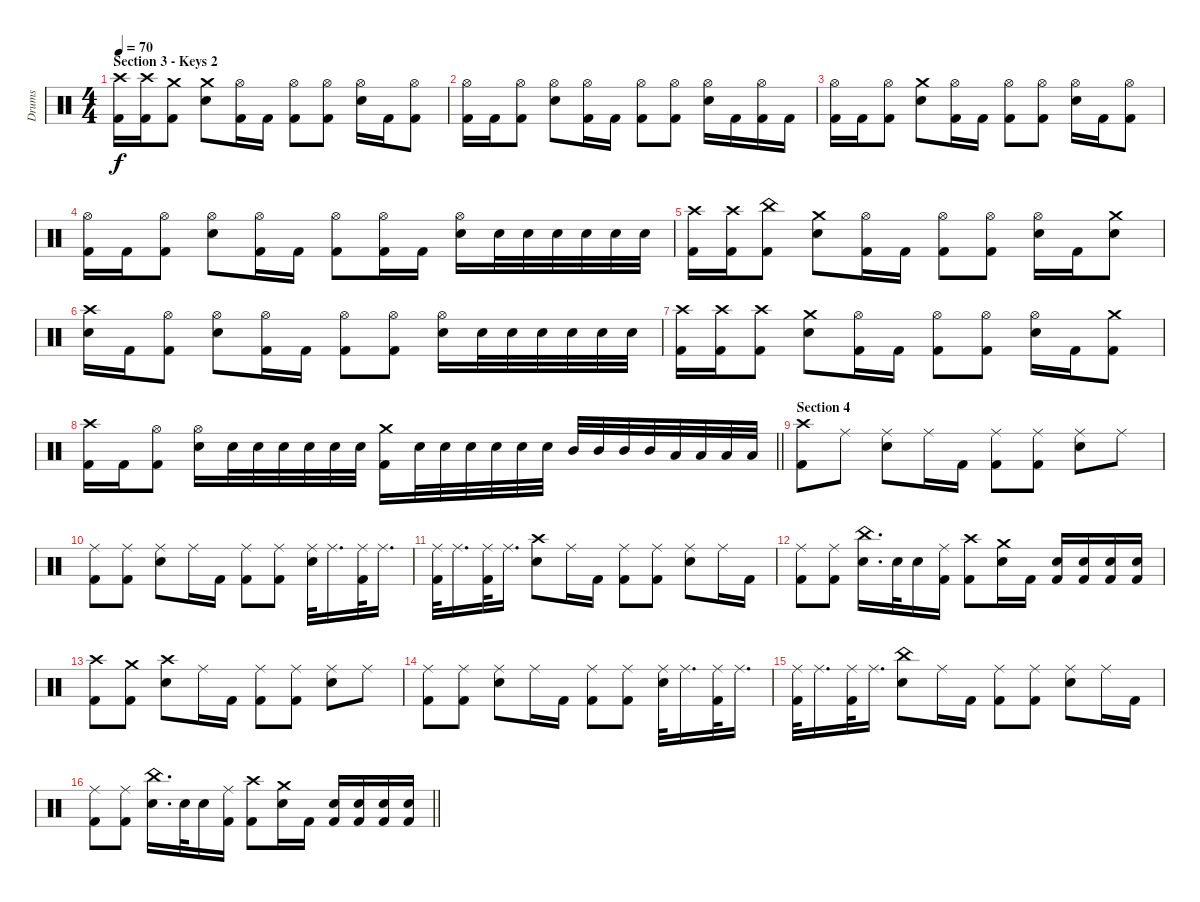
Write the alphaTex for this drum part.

\track ("Drums" "Drums") {instrument percussion}
\staff {score}
\articulation defaults
\ts (4 4)
\section ("" "Section 3 - Keys 2")
\tempo 70
\clef neutral
\ks c
("Crash high (hit)" "Kick (hit) 2").16{dy f} ("Crash high (hit)" "Kick (hit) 2").16 ("Crash medium (hit)" "Kick (hit) 2").8 ("Crash medium (hit)" "Electric Snare (hit)").8 ("Hi-Hat (open)" "Kick (hit) 2").16 "Kick (hit) 2".16 ("Hi-Hat (open)" "Kick (hit) 2").8 ("Hi-Hat (open)" "Kick (hit) 2").8 ("Hi-Hat (open)" "Electric Snare (hit)").16 "Kick (hit) 2".16 ("Hi-Hat (open)" "Kick (hit) 2").8 |
("Hi-Hat (open)" "Kick (hit) 2").16 "Kick (hit) 2".16 ("Hi-Hat (open)" "Kick (hit) 2").8 ("Hi-Hat (open)" "Electric Snare (hit)").8 ("Hi-Hat (open)" "Kick (hit) 2").16 "Kick (hit) 2".16 ("Hi-Hat (open)" "Kick (hit) 2").8 ("Hi-Hat (open)" "Kick (hit) 2").8 ("Hi-Hat (open)" "Electric Snare (hit)").16 "Kick (hit) 2".16 ("Hi-Hat (open)" "Kick (hit) 2").16 "Kick (hit) 2".16 |
("Hi-Hat (open)" "Kick (hit) 2").16 "Kick (hit) 2".16 ("Hi-Hat (open)" "Kick (hit) 2").8 ("Crash medium (hit)" "Electric Snare (hit)").8 ("Hi-Hat (open)" "Kick (hit) 2").16 "Kick (hit) 2".16 ("Hi-Hat (open)" "Kick (hit) 2").8 ("Hi-Hat (open)" "Kick (hit) 2").8 ("Hi-Hat (open)" "Electric Snare (hit)").16 "Kick (hit) 2".16 ("Hi-Hat (open)" "Kick (hit) 2").8 |
("Hi-Hat (open)" "Kick (hit) 2").16 "Kick (hit) 2".16 ("Hi-Hat (open)" "Kick (hit) 2").8 ("Hi-Hat (open)" "Electric Snare (hit)").8 ("Hi-Hat (open)" "Kick (hit) 2").16 "Kick (hit) 2".16 ("Hi-Hat (open)" "Kick (hit) 2").8 ("Hi-Hat (open)" "Kick (hit) 2").16 "Kick (hit) 2".16 ("Hi-Hat (open)" "Electric Snare (hit)").16 "Electric Snare (hit)".32 "Electric Snare (hit)".32 "Electric Snare (hit)".32 "Electric Snare (hit)".32 "Electric Snare (hit)".32 "Electric Snare (hit)".32 |
("Crash high (hit)" "Kick (hit) 2").16 ("Crash high (hit)" "Kick (hit) 2").16 ("China (hit)" "Kick (hit) 2").8 ("Crash medium (hit)" "Electric Snare (hit)").8 ("Hi-Hat (open)" "Kick (hit) 2").16 "Kick (hit) 2".16 ("Hi-Hat (open)" "Kick (hit) 2").8 ("Hi-Hat (open)" "Kick (hit) 2").8 ("Hi-Hat (open)" "Electric Snare (hit)").16 "Kick (hit) 2".16 ("Crash medium (hit)" "Electric Snare (hit)").8 |
("Crash high (hit)" "Electric Snare (hit)").16 "Kick (hit) 2".16 ("Hi-Hat (open)" "Kick (hit) 2").8 ("Hi-Hat (open)" "Electric Snare (hit)").8 ("Hi-Hat (open)" "Kick (hit) 2").16 "Kick (hit) 2".16 ("Hi-Hat (open)" "Kick (hit) 2").8 ("Hi-Hat (open)" "Kick (hit) 2").8 ("Hi-Hat (open)" "Electric Snare (hit)").16 "Electric Snare (hit)".32 "Electric Snare (hit)".32 "Electric Snare (hit)".32 "Electric Snare (hit)".32 "Electric Snare (hit)".32 "Electric Snare (hit)".32 |
("Crash high (hit)" "Kick (hit) 2").16 ("Crash high (hit)" "Kick (hit) 2").16 ("Crash high (hit)" "Kick (hit) 2").8 ("Crash medium (hit)" "Electric Snare (hit)").8 ("Hi-Hat (open)" "Kick (hit) 2").16 "Kick (hit) 2".16 ("Hi-Hat (open)" "Kick (hit) 2").8 ("Hi-Hat (open)" "Kick (hit) 2").8 ("Hi-Hat (open)" "Electric Snare (hit)").16 "Kick (hit) 2".16 ("Crash medium (hit)" "Kick (hit) 2").8 |
\barLineRight lightlight
("Crash high (hit)" "Kick (hit) 2").16 "Kick (hit) 2".16 ("Hi-Hat (open)" "Kick (hit) 2").8 ("Hi-Hat (open)" "Electric Snare (hit)").16 "Electric Snare (hit)".32 "Electric Snare (hit)".32 "Electric Snare (hit)".32 "Electric Snare (hit)".32 "Electric Snare (hit)".32 "Electric Snare (hit)".32 ("Crash medium (hit)" "Kick (hit) 2").16 "Electric Snare (hit)".32 "Electric Snare (hit)".32 "Electric Snare (hit)".32 "Electric Snare (hit)".32 "Electric Snare (hit)".32 "Electric Snare (hit)".32 "Mid Tom (hit)".32 "Mid Tom (hit)".32 "Mid Tom (hit)".32 "Mid Tom (hit)".32 "Low Tom (hit)".32 "Low Tom (hit)".32 "Low Tom (hit)".32 "Low Tom (hit)".32 |
\section ("" "Section 4")
("Crash high (hit)" "Kick (hit) 2").8 "Ride (middle)".8 ("Ride (middle)" "Electric Snare (hit)").8 "Ride (middle)".16 "Kick (hit) 2".16 ("Ride (middle)" "Kick (hit) 2").8 ("Ride (middle)" "Kick (hit) 2").8 ("Ride (middle)" "Electric Snare (hit)").8 "Ride (middle)".8 |
("Ride (middle)" "Kick (hit) 2").8 ("Ride (middle)" "Kick (hit) 2").8 ("Ride (middle)" "Electric Snare (hit)").8 "Ride (middle)".16 "Kick (hit) 2".16 ("Ride (middle)" "Kick (hit) 2").8 ("Ride (middle)" "Kick (hit) 2").8 ("Ride (middle)" "Electric Snare (hit)").32 "Ride (middle)".16{d} ("Ride (middle)" "Kick (hit) 2").32 "Ride (middle)".16{d} |
("Ride (middle)" "Kick (hit) 2").32 "Ride (middle)".16{d} ("Ride (middle)" "Kick (hit) 2").32 "Ride (middle)".16{d} ("Crash high (hit)" "Electric Snare (hit)").8 "Ride (middle)".16 "Kick (hit) 2".16 ("Ride (middle)" "Kick (hit) 2").8 ("Ride (middle)" "Kick (hit) 2").8 ("Ride (middle)" "Electric Snare (hit)").8 "Ride (middle)".16 "Kick (hit) 2".16 |
("Ride (middle)" "Kick (hit) 2").8 ("Ride (middle)" "Kick (hit) 2").8 ("China (hit)" "Electric Snare (hit)").16{d} "Electric Snare (hit)".32 "Electric Snare (hit)".16 ("Ride (middle)" "Kick (hit) 2").16 ("Crash high (hit)" "Kick (hit) 2").8 ("Crash medium (hit)" "Electric Snare (hit)").16 "Kick (hit) 2".16 ("Electric Snare (hit)" "Kick (hit) 2").16 ("Electric Snare (hit)" "Kick (hit) 2").16 ("Electric Snare (hit)" "Kick (hit) 2").16 ("Electric Snare (hit)" "Kick (hit) 2").16 |
("Crash high (hit)" "Kick (hit) 2").8 ("Crash medium (hit)" "Kick (hit) 2").8 ("Crash high (hit)" "Electric Snare (hit)").8 "Ride (middle)".16 "Kick (hit) 2".16 ("Ride (middle)" "Kick (hit) 2").8 ("Ride (middle)" "Kick (hit) 2").8 ("Ride (middle)" "Electric Snare (hit)").8 "Ride (middle)".8 |
("Ride (middle)" "Kick (hit) 2").8 ("Ride (middle)" "Kick (hit) 2").8 ("Ride (middle)" "Electric Snare (hit)").8 "Ride (middle)".16 "Kick (hit) 2".16 ("Ride (middle)" "Kick (hit) 2").8 ("Ride (middle)" "Kick (hit) 2").8 ("Ride (middle)" "Electric Snare (hit)").32 "Ride (middle)".16{d} ("Ride (middle)" "Kick (hit) 2").32 "Ride (middle)".16{d} |
("Ride (middle)" "Kick (hit) 2").32 "Ride (middle)".16{d} ("Ride (middle)" "Kick (hit) 2").32 "Ride (middle)".16{d} ("China (hit)" "Electric Snare (hit)").8 "Ride (middle)".16 "Kick (hit) 2".16 ("Ride (middle)" "Kick (hit) 2").8 ("Ride (middle)" "Kick (hit) 2").8 ("Ride (middle)" "Electric Snare (hit)").8 "Ride (middle)".16 "Kick (hit) 2".16 |
\barLineRight lightlight
("Ride (middle)" "Kick (hit) 2").8 ("Ride (middle)" "Kick (hit) 2").8 ("China (hit)" "Electric Snare (hit)").16{d} "Electric Snare (hit)".32 "Electric Snare (hit)".16 ("Ride (middle)" "Kick (hit) 2").16 ("Crash high (hit)" "Kick (hit) 2").8 ("Crash medium (hit)" "Electric Snare (hit)").16 "Kick (hit) 2".16 ("Electric Snare (hit)" "Kick (hit) 2").16 ("Electric Snare (hit)" "Kick (hit) 2").16 ("Electric Snare (hit)" "Kick (hit) 2").16 ("Electric Snare (hit)" "Kick (hit) 2").16
